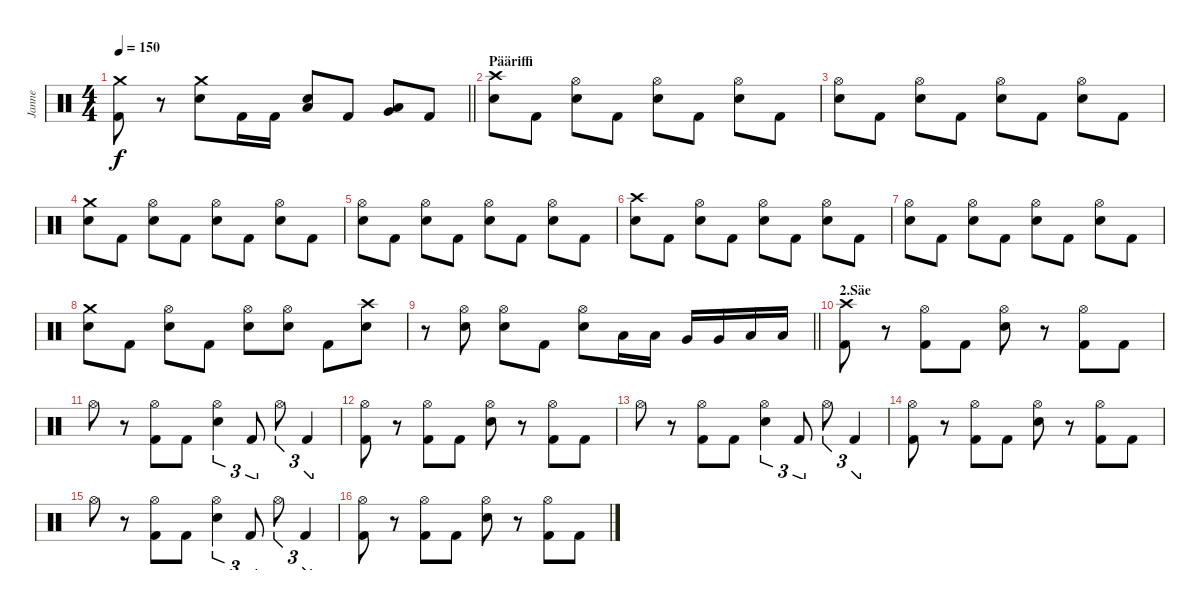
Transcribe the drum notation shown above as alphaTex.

\track ("Janne" "Janne") {instrument percussion}
\staff {score}
\articulation defaults
\ts (4 4)
\tempo 150
\clef neutral
\barLineRight lightlight
\ks c
("Crash medium (hit)" "Kick (hit) 2").8{dy f} r.8 ("Crash medium (hit)" "Electric Snare (hit)").8 "Kick (hit) 2".16 "Kick (hit) 2".16 ("Electric Snare (hit)" "Low Floor Tom (hit)").8 "Kick (hit) 2".8 ("Very Low Tom (hit)" "Low Floor Tom (hit)").8 "Kick (hit) 2".8 |
\section ("" "Pääriffi")
("Crash high (hit)" "Electric Snare (hit)").8 "Kick (hit) 2".8 ("Hi-Hat (open)" "Electric Snare (hit)").8 "Kick (hit) 2".8 ("Hi-Hat (open)" "Electric Snare (hit)").8 "Kick (hit) 2".8 ("Hi-Hat (open)" "Electric Snare (hit)").8 "Kick (hit) 2".8 |
("Hi-Hat (open)" "Electric Snare (hit)").8 "Kick (hit) 2".8 ("Hi-Hat (open)" "Electric Snare (hit)").8 "Kick (hit) 2".8 ("Hi-Hat (open)" "Electric Snare (hit)").8 "Kick (hit) 2".8 ("Hi-Hat (open)" "Electric Snare (hit)").8 "Kick (hit) 2".8 |
("Crash medium (hit)" "Electric Snare (hit)").8 "Kick (hit) 2".8 ("Hi-Hat (open)" "Electric Snare (hit)").8 "Kick (hit) 2".8 ("Hi-Hat (open)" "Electric Snare (hit)").8 "Kick (hit) 2".8 ("Hi-Hat (open)" "Electric Snare (hit)").8 "Kick (hit) 2".8 |
("Hi-Hat (open)" "Electric Snare (hit)").8 "Kick (hit) 2".8 ("Hi-Hat (open)" "Electric Snare (hit)").8 "Kick (hit) 2".8 ("Hi-Hat (open)" "Electric Snare (hit)").8 "Kick (hit) 2".8 ("Hi-Hat (open)" "Electric Snare (hit)").8 "Kick (hit) 2".8 |
("Crash high (hit)" "Electric Snare (hit)").8 "Kick (hit) 2".8 ("Hi-Hat (open)" "Electric Snare (hit)").8 "Kick (hit) 2".8 ("Hi-Hat (open)" "Electric Snare (hit)").8 "Kick (hit) 2".8 ("Hi-Hat (open)" "Electric Snare (hit)").8 "Kick (hit) 2".8 |
("Hi-Hat (open)" "Electric Snare (hit)").8 "Kick (hit) 2".8 ("Hi-Hat (open)" "Electric Snare (hit)").8 "Kick (hit) 2".8 ("Hi-Hat (open)" "Electric Snare (hit)").8 "Kick (hit) 2".8 ("Hi-Hat (open)" "Electric Snare (hit)").8 "Kick (hit) 2".8 |
("Crash medium (hit)" "Electric Snare (hit)").8 "Kick (hit) 2".8 ("Hi-Hat (open)" "Electric Snare (hit)").8 "Kick (hit) 2".8 ("Hi-Hat (open)" "Electric Snare (hit)").8 ("Hi-Hat (open)" "Electric Snare (hit)").8 "Kick (hit) 2".8 ("Crash high (hit)" "Electric Snare (hit)").8 |
\barLineRight lightlight
r.8 ("Hi-Hat (open)" "Electric Snare (hit)").8 ("Hi-Hat (open)" "Electric Snare (hit)").8 "Kick (hit) 2".8 ("Hi-Hat (open)" "Electric Snare (hit)").8 "Low Tom (hit)".16 "Low Tom (hit)".16 "Very Low Tom (hit)".16 "Very Low Tom (hit)".16 "Low Floor Tom (hit)".16 "Low Floor Tom (hit)".16 |
\section ("" "2.Säe")
("Crash high (hit)" "Kick (hit) 2").8 r.8 ("Hi-Hat (open)" "Kick (hit) 2").8 "Kick (hit) 2".8 ("Hi-Hat (open)" "Electric Snare (hit)").8 r.8 ("Hi-Hat (open)" "Kick (hit) 2").8 "Kick (hit) 2".8 |
"Hi-Hat (open)".8 r.8 ("Hi-Hat (open)" "Kick (hit) 2").8 "Kick (hit) 2".8 ("Hi-Hat (open)" "Electric Snare (hit)").4{tu (3 2)} "Kick (hit) 2".8{tu (3 2)} "Hi-Hat (open)".8{tu (3 2)} "Kick (hit) 2".4{tu (3 2)} |
("Hi-Hat (open)" "Kick (hit) 2").8 r.8 ("Hi-Hat (open)" "Kick (hit) 2").8 "Kick (hit) 2".8 ("Hi-Hat (open)" "Electric Snare (hit)").8 r.8 ("Hi-Hat (open)" "Kick (hit) 2").8 "Kick (hit) 2".8 |
"Hi-Hat (open)".8 r.8 ("Hi-Hat (open)" "Kick (hit) 2").8 "Kick (hit) 2".8 ("Hi-Hat (open)" "Electric Snare (hit)").4{tu (3 2)} "Kick (hit) 2".8{tu (3 2)} "Hi-Hat (open)".8{tu (3 2)} "Kick (hit) 2".4{tu (3 2)} |
("Hi-Hat (open)" "Kick (hit) 2").8 r.8 ("Hi-Hat (open)" "Kick (hit) 2").8 "Kick (hit) 2".8 ("Hi-Hat (open)" "Electric Snare (hit)").8 r.8 ("Hi-Hat (open)" "Kick (hit) 2").8 "Kick (hit) 2".8 |
"Hi-Hat (open)".8 r.8 ("Hi-Hat (open)" "Kick (hit) 2").8 "Kick (hit) 2".8 ("Hi-Hat (open)" "Electric Snare (hit)").4{tu (3 2)} "Kick (hit) 2".8{tu (3 2)} "Hi-Hat (open)".8{tu (3 2)} "Kick (hit) 2".4{tu (3 2)} |
("Hi-Hat (open)" "Kick (hit) 2").8 r.8 ("Hi-Hat (open)" "Kick (hit) 2").8 "Kick (hit) 2".8 ("Hi-Hat (open)" "Electric Snare (hit)").8 r.8 ("Hi-Hat (open)" "Kick (hit) 2").8 "Kick (hit) 2".8
